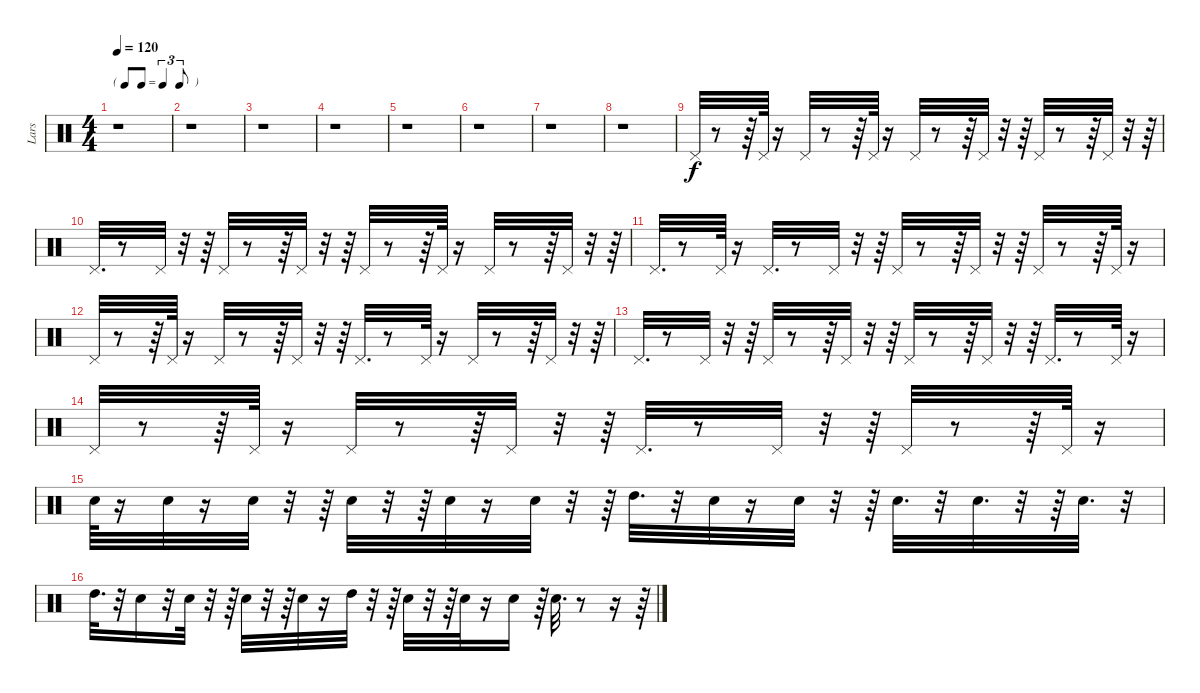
\track ("Lars" "Lars") {instrument percussion}
\staff {score}
\articulation defaults
\ts (4 4)
\tf triplet8th
\tempo 120
\clef neutral
\ks c
r.1{dy f} |
r.1 |
r.1 |
r.1 |
r.1 |
r.1 |
r.1 |
r.1 |
"Pedal Hi-Hat (hit)".32 r.8 r.64 "Pedal Hi-Hat (hit)".64 r.16 "Pedal Hi-Hat (hit)".32 r.8 r.64 "Pedal Hi-Hat (hit)".64 r.16 "Pedal Hi-Hat (hit)".32 r.8 r.64 "Pedal Hi-Hat (hit)".32 r.32 r.64 "Pedal Hi-Hat (hit)".32 r.8 r.64 "Pedal Hi-Hat (hit)".32 r.32 r.64 |
"Pedal Hi-Hat (hit)".32{d} r.8 "Pedal Hi-Hat (hit)".32 r.32 r.64 "Pedal Hi-Hat (hit)".32 r.8 r.64 "Pedal Hi-Hat (hit)".32 r.32 r.64 "Pedal Hi-Hat (hit)".32 r.8 r.64 "Pedal Hi-Hat (hit)".64 r.16 "Pedal Hi-Hat (hit)".32 r.8 r.64 "Pedal Hi-Hat (hit)".32 r.32 r.64 |
"Pedal Hi-Hat (hit)".32{d} r.8 "Pedal Hi-Hat (hit)".64 r.16 "Pedal Hi-Hat (hit)".32{d} r.8 "Pedal Hi-Hat (hit)".32 r.32 r.64 "Pedal Hi-Hat (hit)".32 r.8 r.64 "Pedal Hi-Hat (hit)".32 r.32 r.64 "Pedal Hi-Hat (hit)".32 r.8 r.64 "Pedal Hi-Hat (hit)".64 r.16 |
"Pedal Hi-Hat (hit)".32 r.8 r.64 "Pedal Hi-Hat (hit)".64 r.16 "Pedal Hi-Hat (hit)".32 r.8 r.64 "Pedal Hi-Hat (hit)".32 r.32 r.64 "Pedal Hi-Hat (hit)".32{d} r.8 "Pedal Hi-Hat (hit)".64 r.16 "Pedal Hi-Hat (hit)".32 r.8 r.64 "Pedal Hi-Hat (hit)".32 r.32 r.64 |
"Pedal Hi-Hat (hit)".32{d} r.8 "Pedal Hi-Hat (hit)".32 r.32 r.64 "Pedal Hi-Hat (hit)".32 r.8 r.64 "Pedal Hi-Hat (hit)".32 r.32 r.64 "Pedal Hi-Hat (hit)".32 r.8 r.64 "Pedal Hi-Hat (hit)".32 r.32 r.64 "Pedal Hi-Hat (hit)".32{d} r.8 "Pedal Hi-Hat (hit)".64 r.16 |
"Pedal Hi-Hat (hit)".32 r.8 r.64 "Pedal Hi-Hat (hit)".64 r.16 "Pedal Hi-Hat (hit)".32 r.8 r.64 "Pedal Hi-Hat (hit)".32 r.32 r.64 "Pedal Hi-Hat (hit)".32{d} r.8 "Pedal Hi-Hat (hit)".32 r.32 r.64 "Pedal Hi-Hat (hit)".32 r.8 r.64 "Pedal Hi-Hat (hit)".64 r.16 |
"Snare (hit) 2".64 r.16 "Snare (hit) 2".32 r.16 "Snare (hit) 2".32 r.32 r.64 "Snare (hit) 2".32 r.32 r.64 "Snare (hit) 2".32 r.16 "Snare (hit) 2".32 r.32 r.64 "High Tom (hit)".32{d} r.32 "Snare (hit) 2".32 r.16 "Snare (hit) 2".32 r.32 r.64 "Snare (hit) 2".32{d} r.32 "Snare (hit) 2".32{d} r.32 r.64 "Snare (hit) 2".32{d} r.32 |
"High Tom (hit)".32{d} r.32 "Snare (hit) 2".16 r.32 "Snare (hit) 2".32 r.32 r.64 "Snare (hit) 2".32 r.32 r.64 "Snare (hit) 2".32 r.16 "High Tom (hit)".32 r.32 r.64 "Snare (hit) 2".32 r.32 r.64 "Snare (hit) 2".32 r.16 "Snare (hit) 2".16 r.64 "Snare (hit) 2".32{d} r.8 r.16 r.64
